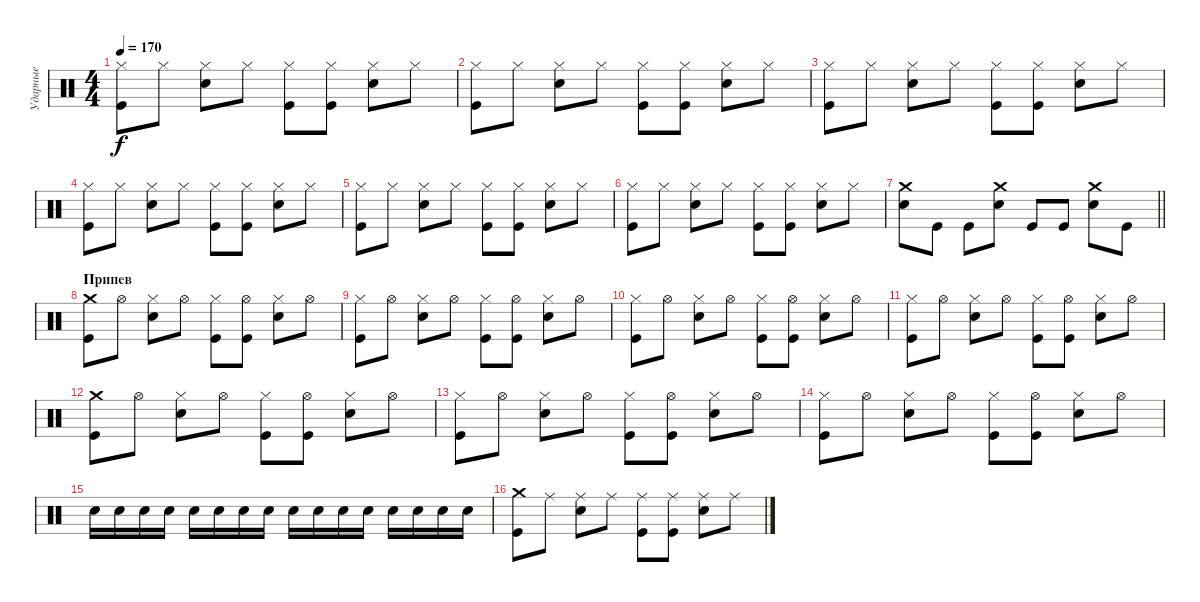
\track ("Ударные" "Ударные") {instrument percussion}
\staff {score}
\articulation defaults
\ts (4 4)
\tempo 170
\clef neutral
\ks c
("Hi-Hat (closed)" "Kick (hit)").8{dy f} "Hi-Hat (closed)".8 ("Hi-Hat (closed)" "Electric Snare (hit)").8 "Hi-Hat (closed)".8 ("Hi-Hat (closed)" "Kick (hit)").8 ("Hi-Hat (closed)" "Kick (hit)").8 ("Hi-Hat (closed)" "Electric Snare (hit)").8 "Hi-Hat (closed)".8 |
("Hi-Hat (closed)" "Kick (hit)").8 "Hi-Hat (closed)".8 ("Hi-Hat (closed)" "Electric Snare (hit)").8 "Hi-Hat (closed)".8 ("Hi-Hat (closed)" "Kick (hit)").8 ("Hi-Hat (closed)" "Kick (hit)").8 ("Hi-Hat (closed)" "Electric Snare (hit)").8 "Hi-Hat (closed)".8 |
("Hi-Hat (closed)" "Kick (hit)").8 "Hi-Hat (closed)".8 ("Hi-Hat (closed)" "Electric Snare (hit)").8 "Hi-Hat (closed)".8 ("Hi-Hat (closed)" "Kick (hit)").8 ("Hi-Hat (closed)" "Kick (hit)").8 ("Hi-Hat (closed)" "Electric Snare (hit)").8 "Hi-Hat (closed)".8 |
("Hi-Hat (closed)" "Kick (hit)").8 "Hi-Hat (closed)".8 ("Hi-Hat (closed)" "Electric Snare (hit)").8 "Hi-Hat (closed)".8 ("Hi-Hat (closed)" "Kick (hit)").8 ("Hi-Hat (closed)" "Kick (hit)").8 ("Hi-Hat (closed)" "Electric Snare (hit)").8 "Hi-Hat (closed)".8 |
("Hi-Hat (closed)" "Kick (hit)").8 "Hi-Hat (closed)".8 ("Hi-Hat (closed)" "Electric Snare (hit)").8 "Hi-Hat (closed)".8 ("Hi-Hat (closed)" "Kick (hit)").8 ("Hi-Hat (closed)" "Kick (hit)").8 ("Hi-Hat (closed)" "Electric Snare (hit)").8 "Hi-Hat (closed)".8 |
("Hi-Hat (closed)" "Kick (hit)").8 "Hi-Hat (closed)".8 ("Hi-Hat (closed)" "Electric Snare (hit)").8 "Hi-Hat (closed)".8 ("Hi-Hat (closed)" "Kick (hit)").8 ("Hi-Hat (closed)" "Kick (hit)").8 ("Hi-Hat (closed)" "Electric Snare (hit)").8 "Hi-Hat (closed)".8 |
\barLineRight lightlight
("Crash medium (hit)" "Electric Snare (hit)").8 "Kick (hit)".8 "Kick (hit)".8 ("Crash medium (hit)" "Electric Snare (hit)").8 "Kick (hit)".8 "Kick (hit)".8 ("Crash medium (hit)" "Electric Snare (hit)").8 "Kick (hit)".8 |
\section ("" "Припев")
("Crash medium (hit)" "Kick (hit)").8 "Hi-Hat (open)".8 ("Hi-Hat (closed)" "Electric Snare (hit)").8 "Hi-Hat (open)".8 ("Hi-Hat (closed)" "Kick (hit)").8 ("Hi-Hat (open)" "Kick (hit)").8 ("Hi-Hat (closed)" "Electric Snare (hit)").8 "Hi-Hat (open)".8 |
("Hi-Hat (closed)" "Kick (hit)").8 "Hi-Hat (open)".8 ("Hi-Hat (closed)" "Electric Snare (hit)").8 "Hi-Hat (open)".8 ("Hi-Hat (closed)" "Kick (hit)").8 ("Hi-Hat (open)" "Kick (hit)").8 ("Hi-Hat (closed)" "Electric Snare (hit)").8 "Hi-Hat (open)".8 |
("Hi-Hat (closed)" "Kick (hit)").8 "Hi-Hat (open)".8 ("Hi-Hat (closed)" "Electric Snare (hit)").8 "Hi-Hat (open)".8 ("Hi-Hat (closed)" "Kick (hit)").8 ("Hi-Hat (open)" "Kick (hit)").8 ("Hi-Hat (closed)" "Electric Snare (hit)").8 "Hi-Hat (open)".8 |
("Hi-Hat (closed)" "Kick (hit)").8 "Hi-Hat (open)".8 ("Hi-Hat (closed)" "Electric Snare (hit)").8 "Hi-Hat (open)".8 ("Hi-Hat (closed)" "Kick (hit)").8 ("Hi-Hat (open)" "Kick (hit)").8 ("Hi-Hat (closed)" "Electric Snare (hit)").8 "Hi-Hat (open)".8 |
("Crash medium (hit)" "Kick (hit)").8 "Hi-Hat (open)".8 ("Hi-Hat (closed)" "Electric Snare (hit)").8 "Hi-Hat (open)".8 ("Hi-Hat (closed)" "Kick (hit)").8 ("Hi-Hat (open)" "Kick (hit)").8 ("Hi-Hat (closed)" "Electric Snare (hit)").8 "Hi-Hat (open)".8 |
("Hi-Hat (closed)" "Kick (hit)").8 "Hi-Hat (open)".8 ("Hi-Hat (closed)" "Electric Snare (hit)").8 "Hi-Hat (open)".8 ("Hi-Hat (closed)" "Kick (hit)").8 ("Hi-Hat (open)" "Kick (hit)").8 ("Hi-Hat (closed)" "Electric Snare (hit)").8 "Hi-Hat (open)".8 |
("Hi-Hat (closed)" "Kick (hit)").8 "Hi-Hat (open)".8 ("Hi-Hat (closed)" "Electric Snare (hit)").8 "Hi-Hat (open)".8 ("Hi-Hat (closed)" "Kick (hit)").8 ("Hi-Hat (open)" "Kick (hit)").8 ("Hi-Hat (closed)" "Electric Snare (hit)").8 "Hi-Hat (open)".8 |
"Electric Snare (hit)".16 "Electric Snare (hit)".16 "Electric Snare (hit)".16 "Electric Snare (hit)".16 "Electric Snare (hit)".16 "Electric Snare (hit)".16 "Electric Snare (hit)".16 "Electric Snare (hit)".16 "Electric Snare (hit)".16 "Electric Snare (hit)".16 "Electric Snare (hit)".16 "Electric Snare (hit)".16 "Electric Snare (hit)".16 "Electric Snare (hit)".16 "Electric Snare (hit)".16 "Electric Snare (hit)".16 |
("Crash medium (hit)" "Kick (hit)").8 "Ride (middle)".8 ("Ride (middle)" "Electric Snare (hit)").8 "Ride (middle)".8 ("Ride (middle)" "Kick (hit)").8 ("Ride (middle)" "Kick (hit)").8 ("Ride (middle)" "Electric Snare (hit)").8 "Ride (middle)".8
